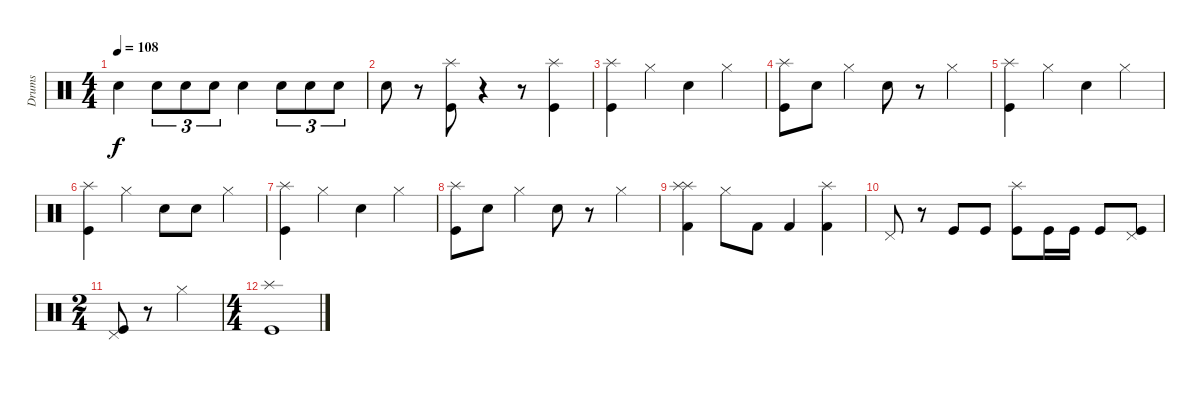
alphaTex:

\track ("Drums" "Drums") {instrument percussion}
\staff {score}
\articulation defaults
\ts (4 4)
\tempo 108
\clef neutral
\ks c "Electric Snare (hit)".4{dy f} "Electric Snare (hit)".8{tu (3 2)} "Electric Snare (hit)".8{tu (3 2)} "Electric Snare (hit)".8{tu (3 2)} "Electric Snare (hit)".4 "Electric Snare (hit)".8{tu (3 2)} "Electric Snare (hit)".8{tu (3 2)} "Electric Snare (hit)".8{tu (3 2)}
|
"Electric Snare (hit)".8 r.8 ("Kick (hit)" "Splash (hit)").8{volume 13} r.4 r.8 ("Kick (hit)" "Splash (hit)").4 |
("Kick (hit)" "Splash (hit)").4 "Hi-Hat (closed)".4 "Electric Snare (hit)".4 "Hi-Hat (closed)".4 |
("Kick (hit)" "Splash (hit)").8 "Electric Snare (hit)".8 "Hi-Hat (closed)".4 "Electric Snare (hit)".8 r.8 "Hi-Hat (closed)".4 |
("Kick (hit)" "Splash (hit)").4 "Hi-Hat (closed)".4 "Electric Snare (hit)".4 "Hi-Hat (closed)".4 |
("Kick (hit)" "Splash (hit)").4 "Hi-Hat (closed)".4 "Electric Snare (hit)".8 "Electric Snare (hit)".8 "Hi-Hat (closed)".4 |
("Kick (hit)" "Splash (hit)").4 "Hi-Hat (closed)".4 "Electric Snare (hit)".4 "Hi-Hat (closed)".4 |
("Kick (hit)" "Splash (hit)").8 "Electric Snare (hit)".8 "Hi-Hat (closed)".4 "Electric Snare (hit)".8 r.8 "Hi-Hat (closed)".4 |
("Kick (hit) 2" "Splash (hit)" "Splash (hit)").4 "Hi-Hat (closed)".8 "Kick (hit) 2".8 "Kick (hit) 2".4 ("Kick (hit) 2" "Splash (hit)").4 |
"Pedal Hi-Hat (hit)".8 r.8 "Kick (hit)".8 "Kick (hit)".8 ("Kick (hit)" "Splash (hit)").8 "Kick (hit)".16 "Kick (hit)".16 "Kick (hit)".8 ("Kick (hit)" "Pedal Hi-Hat (hit)").8 |
\ts (2 4)
("Kick (hit)" "Pedal Hi-Hat (hit)").8 r.8 "Hi-Hat (closed)".4 |
\ts (4 4)
("Kick (hit)" "Splash (hit)").1
